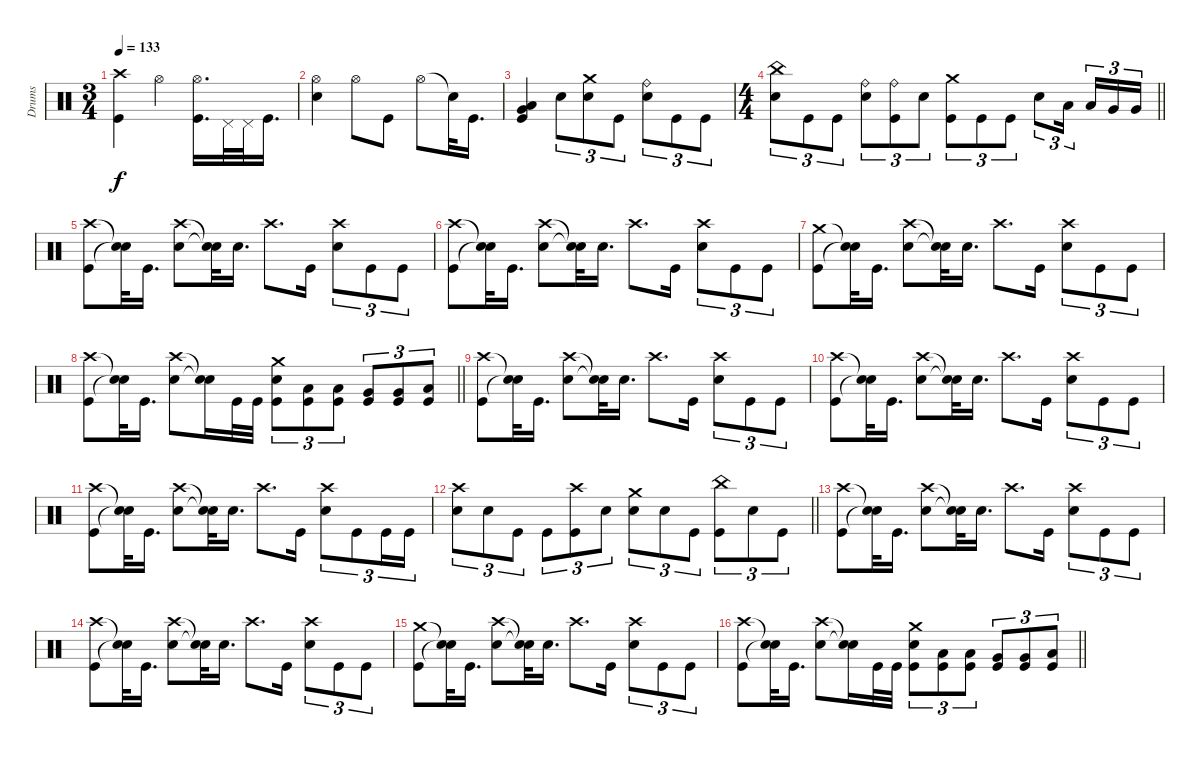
\track ("Drums" "Drums") {instrument percussion}
\staff
\articulation defaults
\ts (3 4)
\tempo 133
\clef neutral
\ks c
("Crash high (hit)" "Kick (hit)").4{dy f} "Hi-Hat (open)".4 ("Hi-Hat (open)" "Kick (hit)").16{d} "Pedal Hi-Hat (hit)".32 "Pedal Hi-Hat (hit)".32 "Kick (hit)".16{d} |
("Hi-Hat (open)" "Electric Snare (hit)").4 "Hi-Hat (open)".8 "Kick (hit)".8 "Hi-Hat (open)".8 "Snare (hit)"{t}.32 "Kick (hit)".16{d} |
("Very Low Tom (hit)" "Low Floor Tom (hit)" "Kick (hit)").4 "Electric Snare (hit)".8{tu (3 2)} ("Crash medium (hit)" "Electric Snare (hit)").8{tu (3 2)} "Kick (hit)".8{tu (3 2)} ("Ride (bell)" "Electric Snare (hit)").8{tu (3 2)} "Kick (hit)".8{tu (3 2)} "Kick (hit)".8{tu (3 2)} |
\ts (4 4)
\barLineRight lightlight
("China (hit)" "Electric Snare (hit)").8{tu (3 2)} "Kick (hit)".8{tu (3 2)} "Kick (hit)".8{tu (3 2)} ("Ride (bell)" "Electric Snare (hit)").8{tu (3 2)} ("Ride (bell)" "Kick (hit)").8{tu (3 2)} "Electric Snare (hit)".8{tu (3 2)} ("Crash medium (hit)" "Kick (hit)").8{tu (3 2)} "Kick (hit)".8{tu (3 2)} "Kick (hit)".8{tu (3 2)} "Electric Snare (hit)".8{tu (3 2)} "Low Tom (hit)".16{tu (3 2) beam splitsecondary} "Low Tom (hit)".16{tu (3 2)} "Very Low Tom (hit)".16{tu (3 2)} "Very Low Tom (hit)".16{tu (3 2)} |
\section ("" "")
("Crash high (hit)" "Kick (hit)").8 ("Snare (hit)"{t} "Snare (hit)"{t}).32 "Kick (hit)".16{d} ("Crash high (hit)" "Electric Snare (hit)").8 ("Snare (hit)"{t} "Snare (hit)"{t}).32 "Electric Snare (hit)".16{d} "Crash high (hit)".8{d} "Kick (hit)".16 ("Crash high (hit)" "Electric Snare (hit)").8{tu (3 2)} "Kick (hit)".8{tu (3 2)} "Kick (hit)".8{tu (3 2)} |
("Crash high (hit)" "Kick (hit)").8 ("Snare (hit)"{t} "Snare (hit)"{t}).32 "Kick (hit)".16{d} ("Crash high (hit)" "Electric Snare (hit)").8 ("Snare (hit)"{t} "Snare (hit)"{t}).32 "Electric Snare (hit)".16{d} "Crash high (hit)".8{d} "Kick (hit)".16 ("Crash high (hit)" "Electric Snare (hit)").8{tu (3 2)} "Kick (hit)".8{tu (3 2)} "Kick (hit)".8{tu (3 2)} |
("Crash medium (hit)" "Kick (hit)").8 ("Snare (hit)"{t} "Snare (hit)"{t}).32 "Kick (hit)".16{d} ("Crash high (hit)" "Electric Snare (hit)").8 ("Snare (hit)"{t} "Snare (hit)"{t}).32 "Electric Snare (hit)".16{d} "Crash high (hit)".8{d} "Kick (hit)".16 ("Crash high (hit)" "Electric Snare (hit)").8{tu (3 2)} "Kick (hit)".8{tu (3 2)} "Kick (hit)".8{tu (3 2)} |
\barLineRight lightlight
("Crash high (hit)" "Kick (hit)").8 ("Snare (hit)"{t} "Snare (hit)"{t}).32 "Kick (hit)".16{d} ("Crash high (hit)" "Electric Snare (hit)").8 ("Snare (hit)"{t} "Snare (hit)"{t}).16 "Kick (hit)".32 "Kick (hit)".32 ("Crash medium (hit)" "Electric Snare (hit)" "Kick (hit)").8{tu (3 2)} ("Low Tom (hit)" "Kick (hit)").8{tu (3 2)} ("Low Tom (hit)" "Kick (hit)").8{tu (3 2)} ("Very Low Tom (hit)" "Kick (hit)").8{tu (3 2)} ("Very Low Tom (hit)" "Kick (hit)").8{tu (3 2)} ("Low Floor Tom (hit)" "Kick (hit)").8{tu (3 2)} |
("Crash high (hit)" "Kick (hit)").8 ("Snare (hit)"{t} "Snare (hit)"{t}).32 "Kick (hit)".16{d} ("Crash high (hit)" "Electric Snare (hit)").8 ("Snare (hit)"{t} "Snare (hit)"{t}).32 "Electric Snare (hit)".16{d} "Crash high (hit)".8{d} "Kick (hit)".16 ("Crash high (hit)" "Electric Snare (hit)").8{tu (3 2)} "Kick (hit)".8{tu (3 2)} "Kick (hit)".8{tu (3 2)} |
("Crash high (hit)" "Kick (hit)").8 ("Snare (hit)"{t} "Snare (hit)"{t}).32 "Kick (hit)".16{d} ("Crash high (hit)" "Electric Snare (hit)").8 ("Snare (hit)"{t} "Snare (hit)"{t}).32 "Electric Snare (hit)".16{d} "Crash high (hit)".8{d} "Kick (hit)".16 ("Crash high (hit)" "Electric Snare (hit)").8{tu (3 2)} "Kick (hit)".8{tu (3 2)} "Kick (hit)".8{tu (3 2)} |
("Crash high (hit)" "Kick (hit)").8 ("Snare (hit)"{t} "Snare (hit)"{t}).32 "Kick (hit)".16{d} ("Crash high (hit)" "Electric Snare (hit)").8 ("Snare (hit)"{t} "Snare (hit)"{t}).32 "Electric Snare (hit)".16{d} "Crash high (hit)".8{d} "Kick (hit)".16 ("Crash high (hit)" "Electric Snare (hit)").8{tu (3 2)} "Kick (hit)".8{tu (3 2)} "Kick (hit)".16{tu (3 2)} "Kick (hit)".16{tu (3 2)} |
\barLineRight lightlight
("Crash high (hit)" "Electric Snare (hit)").8{tu (3 2)} "Electric Snare (hit)".8{tu (3 2)} "Kick (hit)".8{tu (3 2)} "Kick (hit)".8{tu (3 2)} ("Crash high (hit)" "Kick (hit)").8{tu (3 2)} "Electric Snare (hit)".8{tu (3 2)} ("Crash medium (hit)" "Electric Snare (hit)").8{tu (3 2)} "Electric Snare (hit)".8{tu (3 2)} "Kick (hit)".8{tu (3 2)} ("China (hit)" "Kick (hit)").8{tu (3 2)} "Electric Snare (hit)".8{tu (3 2)} "Kick (hit)".8{tu (3 2)} |
("Crash high (hit)" "Kick (hit)").8 ("Snare (hit)"{t} "Snare (hit)"{t}).32 "Kick (hit)".16{d} ("Crash high (hit)" "Electric Snare (hit)").8 ("Snare (hit)"{t} "Snare (hit)"{t}).32 "Electric Snare (hit)".16{d} "Crash high (hit)".8{d} "Kick (hit)".16 ("Crash high (hit)" "Electric Snare (hit)").8{tu (3 2)} "Kick (hit)".8{tu (3 2)} "Kick (hit)".8{tu (3 2)} |
("Crash high (hit)" "Kick (hit)").8 ("Snare (hit)"{t} "Snare (hit)"{t}).32 "Kick (hit)".16{d} ("Crash high (hit)" "Electric Snare (hit)").8 ("Snare (hit)"{t} "Snare (hit)"{t}).32 "Electric Snare (hit)".16{d} "Crash high (hit)".8{d} "Kick (hit)".16 ("Crash high (hit)" "Electric Snare (hit)").8{tu (3 2)} "Kick (hit)".8{tu (3 2)} "Kick (hit)".8{tu (3 2)} |
("Crash medium (hit)" "Kick (hit)").8 ("Snare (hit)"{t} "Snare (hit)"{t}).32 "Kick (hit)".16{d} ("Crash high (hit)" "Electric Snare (hit)").8 ("Snare (hit)"{t} "Snare (hit)"{t}).32 "Electric Snare (hit)".16{d} "Crash high (hit)".8{d} "Kick (hit)".16 ("Crash high (hit)" "Electric Snare (hit)").8{tu (3 2)} "Kick (hit)".8{tu (3 2)} "Kick (hit)".8{tu (3 2)} |
\barLineRight lightlight
("Crash high (hit)" "Kick (hit)").8 ("Snare (hit)"{t} "Snare (hit)"{t}).32 "Kick (hit)".16{d} ("Crash high (hit)" "Electric Snare (hit)").8 ("Snare (hit)"{t} "Snare (hit)"{t}).16 "Kick (hit)".32 "Kick (hit)".32 ("Crash medium (hit)" "Electric Snare (hit)" "Kick (hit)").8{tu (3 2)} ("Low Tom (hit)" "Kick (hit)").8{tu (3 2)} ("Low Tom (hit)" "Kick (hit)").8{tu (3 2)} ("Very Low Tom (hit)" "Kick (hit)").8{tu (3 2)} ("Very Low Tom (hit)" "Kick (hit)").8{tu (3 2)} ("Low Floor Tom (hit)" "Kick (hit)").8{tu (3 2)}
